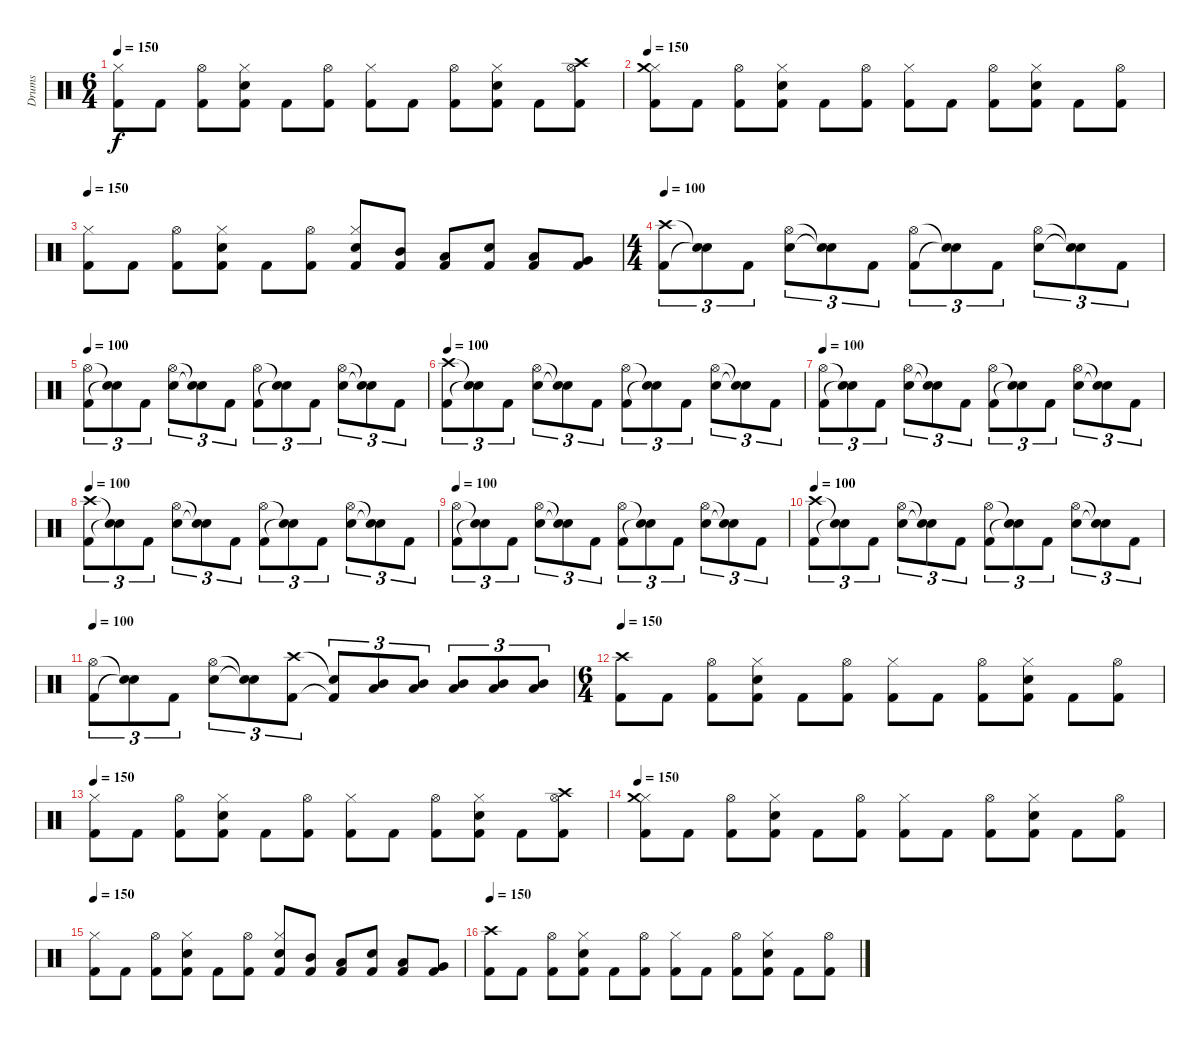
\track ("Drums" "Drums") {instrument percussion}
\staff {score}
\articulation defaults
\ts (6 4)
\tempo 150
\clef neutral
\ks c
("Kick (hit) 2" "Hi-Hat (closed)").8{dy f} "Kick (hit) 2".8 ("Kick (hit) 2" "Hi-Hat (open)").8 ("Kick (hit) 2" "Electric Snare (hit)" "Hi-Hat (closed)").8 "Kick (hit) 2".8 ("Kick (hit) 2" "Hi-Hat (open)").8 ("Kick (hit) 2" "Hi-Hat (closed)").8 "Kick (hit) 2".8 ("Kick (hit) 2" "Hi-Hat (open)").8 ("Kick (hit) 2" "Electric Snare (hit)" "Hi-Hat (closed)").8 "Kick (hit) 2".8 ("Kick (hit) 2" "Hi-Hat (open)" "Crash high (hit)").8 |
\tempo 150
("Kick (hit) 2" "Hi-Hat (closed)" "Crash medium (hit)").8 "Kick (hit) 2".8 ("Kick (hit) 2" "Hi-Hat (open)").8 ("Kick (hit) 2" "Electric Snare (hit)" "Hi-Hat (closed)").8 "Kick (hit) 2".8 ("Kick (hit) 2" "Hi-Hat (open)").8 ("Kick (hit) 2" "Hi-Hat (closed)").8 "Kick (hit) 2".8 ("Kick (hit) 2" "Hi-Hat (open)").8 ("Kick (hit) 2" "Electric Snare (hit)" "Hi-Hat (closed)").8 "Kick (hit) 2".8 ("Kick (hit) 2" "Hi-Hat (open)").8 |
\tempo 150
("Kick (hit) 2" "Hi-Hat (closed)").8 "Kick (hit) 2".8 ("Kick (hit) 2" "Hi-Hat (open)").8 ("Kick (hit) 2" "Electric Snare (hit)" "Hi-Hat (closed)").8 "Kick (hit) 2".8 ("Kick (hit) 2" "Hi-Hat (open)").8 ("Kick (hit) 2" "Electric Snare (hit)" "Hi-Hat (closed)").8 ("Kick (hit) 2" "Mid Tom (hit)").8 ("Kick (hit) 2" "Low Tom (hit)").8 ("Kick (hit) 2" "Electric Snare (hit)").8 ("Kick (hit) 2" "Low Tom (hit)").8 ("Kick (hit) 2" "Very Low Tom (hit)").8 |
\ts (4 4)
\tempo 100
("Kick (hit) 2" "Crash high (hit)").8{tu (3 2)} ("Snare (hit)"{t} "Snare (hit)"{t}).8{tu (3 2)} "Kick (hit) 2".8{tu (3 2)} ("Electric Snare (hit)" "Hi-Hat (open)").8{tu (3 2)} ("Snare (hit)"{t} "Snare (hit)"{t}).8{tu (3 2)} "Kick (hit) 2".8{tu (3 2)} ("Kick (hit) 2" "Hi-Hat (open)").8{tu (3 2)} ("Snare (hit)"{t} "Snare (hit)"{t}).8{tu (3 2)} "Kick (hit) 2".8{tu (3 2)} ("Electric Snare (hit)" "Hi-Hat (open)").8{tu (3 2)} ("Snare (hit)"{t} "Snare (hit)"{t}).8{tu (3 2)} "Kick (hit) 2".8{tu (3 2)} |
\tempo 100
("Kick (hit) 2" "Hi-Hat (open)").8{tu (3 2)} ("Snare (hit)"{t} "Snare (hit)"{t}).8{tu (3 2)} "Kick (hit) 2".8{tu (3 2)} ("Electric Snare (hit)" "Hi-Hat (open)").8{tu (3 2)} ("Snare (hit)"{t} "Snare (hit)"{t}).8{tu (3 2)} "Kick (hit) 2".8{tu (3 2)} ("Kick (hit) 2" "Hi-Hat (open)").8{tu (3 2)} ("Snare (hit)"{t} "Snare (hit)"{t}).8{tu (3 2)} "Kick (hit) 2".8{tu (3 2)} ("Electric Snare (hit)" "Hi-Hat (open)").8{tu (3 2)} ("Snare (hit)"{t} "Snare (hit)"{t}).8{tu (3 2)} "Kick (hit) 2".8{tu (3 2)} |
\tempo 100
("Kick (hit) 2" "Crash high (hit)").8{tu (3 2)} ("Snare (hit)"{t} "Snare (hit)"{t}).8{tu (3 2)} "Kick (hit) 2".8{tu (3 2)} ("Electric Snare (hit)" "Hi-Hat (open)").8{tu (3 2)} ("Snare (hit)"{t} "Snare (hit)"{t}).8{tu (3 2)} "Kick (hit) 2".8{tu (3 2)} ("Kick (hit) 2" "Hi-Hat (open)").8{tu (3 2)} ("Snare (hit)"{t} "Snare (hit)"{t}).8{tu (3 2)} "Kick (hit) 2".8{tu (3 2)} ("Electric Snare (hit)" "Hi-Hat (open)").8{tu (3 2)} ("Snare (hit)"{t} "Snare (hit)"{t}).8{tu (3 2)} "Kick (hit) 2".8{tu (3 2)} |
\tempo 100
("Kick (hit) 2" "Hi-Hat (open)").8{tu (3 2)} ("Snare (hit)"{t} "Snare (hit)"{t}).8{tu (3 2)} "Kick (hit) 2".8{tu (3 2)} ("Electric Snare (hit)" "Hi-Hat (open)").8{tu (3 2)} ("Snare (hit)"{t} "Snare (hit)"{t}).8{tu (3 2)} "Kick (hit) 2".8{tu (3 2)} ("Kick (hit) 2" "Hi-Hat (open)").8{tu (3 2)} ("Snare (hit)"{t} "Snare (hit)"{t}).8{tu (3 2)} "Kick (hit) 2".8{tu (3 2)} ("Electric Snare (hit)" "Hi-Hat (open)").8{tu (3 2)} ("Snare (hit)"{t} "Snare (hit)"{t}).8{tu (3 2)} "Kick (hit) 2".8{tu (3 2)} |
\tempo 100
("Kick (hit) 2" "Crash high (hit)").8{tu (3 2)} ("Snare (hit)"{t} "Snare (hit)"{t}).8{tu (3 2)} "Kick (hit) 2".8{tu (3 2)} ("Electric Snare (hit)" "Hi-Hat (open)").8{tu (3 2)} ("Snare (hit)"{t} "Snare (hit)"{t}).8{tu (3 2)} "Kick (hit) 2".8{tu (3 2)} ("Kick (hit) 2" "Hi-Hat (open)").8{tu (3 2)} ("Snare (hit)"{t} "Snare (hit)"{t}).8{tu (3 2)} "Kick (hit) 2".8{tu (3 2)} ("Electric Snare (hit)" "Hi-Hat (open)").8{tu (3 2)} ("Snare (hit)"{t} "Snare (hit)"{t}).8{tu (3 2)} "Kick (hit) 2".8{tu (3 2)} |
\tempo 100
("Kick (hit) 2" "Hi-Hat (open)").8{tu (3 2)} ("Snare (hit)"{t} "Snare (hit)"{t}).8{tu (3 2)} "Kick (hit) 2".8{tu (3 2)} ("Electric Snare (hit)" "Hi-Hat (open)").8{tu (3 2)} ("Snare (hit)"{t} "Snare (hit)"{t}).8{tu (3 2)} "Kick (hit) 2".8{tu (3 2)} ("Kick (hit) 2" "Hi-Hat (open)").8{tu (3 2)} ("Snare (hit)"{t} "Snare (hit)"{t}).8{tu (3 2)} "Kick (hit) 2".8{tu (3 2)} ("Electric Snare (hit)" "Hi-Hat (open)").8{tu (3 2)} ("Snare (hit)"{t} "Snare (hit)"{t}).8{tu (3 2)} "Kick (hit) 2".8{tu (3 2)} |
\tempo 100
("Kick (hit) 2" "Crash high (hit)").8{tu (3 2)} ("Snare (hit)"{t} "Snare (hit)"{t}).8{tu (3 2)} "Kick (hit) 2".8{tu (3 2)} ("Electric Snare (hit)" "Hi-Hat (open)").8{tu (3 2)} ("Snare (hit)"{t} "Snare (hit)"{t}).8{tu (3 2)} "Kick (hit) 2".8{tu (3 2)} ("Kick (hit) 2" "Hi-Hat (open)").8{tu (3 2)} ("Snare (hit)"{t} "Snare (hit)"{t}).8{tu (3 2)} "Kick (hit) 2".8{tu (3 2)} ("Electric Snare (hit)" "Hi-Hat (open)").8{tu (3 2)} ("Snare (hit)"{t} "Snare (hit)"{t}).8{tu (3 2)} "Kick (hit) 2".8{tu (3 2)} |
\tempo 100
("Kick (hit) 2" "Hi-Hat (open)").8{tu (3 2)} ("Snare (hit)"{t} "Snare (hit)"{t}).8{tu (3 2)} "Kick (hit) 2".8{tu (3 2)} ("Electric Snare (hit)" "Hi-Hat (open)").8{tu (3 2)} ("Snare (hit)"{t} "Snare (hit)"{t}).8{tu (3 2)} ("Kick (hit) 2" "Crash high (hit)").8{tu (3 2)} ("Kick (hit) 2"{t} "Snare (hit)"{t}).8{tu (3 2)} ("Mid Tom (hit)" "Low Tom (hit)").8{tu (3 2)} ("Mid Tom (hit)" "Low Tom (hit)").8{tu (3 2)} ("Mid Tom (hit)" "Low Tom (hit)").8{tu (3 2)} ("Mid Tom (hit)" "Low Tom (hit)").8{tu (3 2)} ("Mid Tom (hit)" "Low Tom (hit)").8{tu (3 2)} |
\ts (6 4)
\tempo 150
("Kick (hit) 2" "Crash high (hit)").8 "Kick (hit) 2".8 ("Kick (hit) 2" "Hi-Hat (open)").8 ("Kick (hit) 2" "Electric Snare (hit)" "Hi-Hat (closed)").8 "Kick (hit) 2".8 ("Kick (hit) 2" "Hi-Hat (open)").8 ("Kick (hit) 2" "Hi-Hat (closed)").8 "Kick (hit) 2".8 ("Kick (hit) 2" "Hi-Hat (open)").8 ("Kick (hit) 2" "Electric Snare (hit)" "Hi-Hat (closed)").8 "Kick (hit) 2".8 ("Kick (hit) 2" "Hi-Hat (open)").8 |
\tempo 150
("Kick (hit) 2" "Hi-Hat (closed)").8 "Kick (hit) 2".8 ("Kick (hit) 2" "Hi-Hat (open)").8 ("Kick (hit) 2" "Electric Snare (hit)" "Hi-Hat (closed)").8 "Kick (hit) 2".8 ("Kick (hit) 2" "Hi-Hat (open)").8 ("Kick (hit) 2" "Hi-Hat (closed)").8 "Kick (hit) 2".8 ("Kick (hit) 2" "Hi-Hat (open)").8 ("Kick (hit) 2" "Electric Snare (hit)" "Hi-Hat (closed)").8 "Kick (hit) 2".8 ("Kick (hit) 2" "Hi-Hat (open)" "Crash high (hit)").8 |
\tempo 150
("Kick (hit) 2" "Hi-Hat (closed)" "Crash medium (hit)").8 "Kick (hit) 2".8 ("Kick (hit) 2" "Hi-Hat (open)").8 ("Kick (hit) 2" "Electric Snare (hit)" "Hi-Hat (closed)").8 "Kick (hit) 2".8 ("Kick (hit) 2" "Hi-Hat (open)").8 ("Kick (hit) 2" "Hi-Hat (closed)").8 "Kick (hit) 2".8 ("Kick (hit) 2" "Hi-Hat (open)").8 ("Kick (hit) 2" "Electric Snare (hit)" "Hi-Hat (closed)").8 "Kick (hit) 2".8 ("Kick (hit) 2" "Hi-Hat (open)").8 |
\tempo 150
("Kick (hit) 2" "Hi-Hat (closed)").8 "Kick (hit) 2".8 ("Kick (hit) 2" "Hi-Hat (open)").8 ("Kick (hit) 2" "Electric Snare (hit)" "Hi-Hat (closed)").8 "Kick (hit) 2".8 ("Kick (hit) 2" "Hi-Hat (open)").8 ("Kick (hit) 2" "Electric Snare (hit)" "Hi-Hat (closed)").8 ("Kick (hit) 2" "Mid Tom (hit)").8 ("Kick (hit) 2" "Low Tom (hit)").8 ("Kick (hit) 2" "Electric Snare (hit)").8 ("Kick (hit) 2" "Low Tom (hit)").8 ("Kick (hit) 2" "Very Low Tom (hit)").8 |
\tempo 150
("Kick (hit) 2" "Crash high (hit)").8 "Kick (hit) 2".8 ("Kick (hit) 2" "Hi-Hat (open)").8 ("Kick (hit) 2" "Electric Snare (hit)" "Hi-Hat (closed)").8 "Kick (hit) 2".8 ("Kick (hit) 2" "Hi-Hat (open)").8 ("Kick (hit) 2" "Hi-Hat (closed)").8 "Kick (hit) 2".8 ("Kick (hit) 2" "Hi-Hat (open)").8 ("Kick (hit) 2" "Electric Snare (hit)" "Hi-Hat (closed)").8 "Kick (hit) 2".8 ("Kick (hit) 2" "Hi-Hat (open)").8
